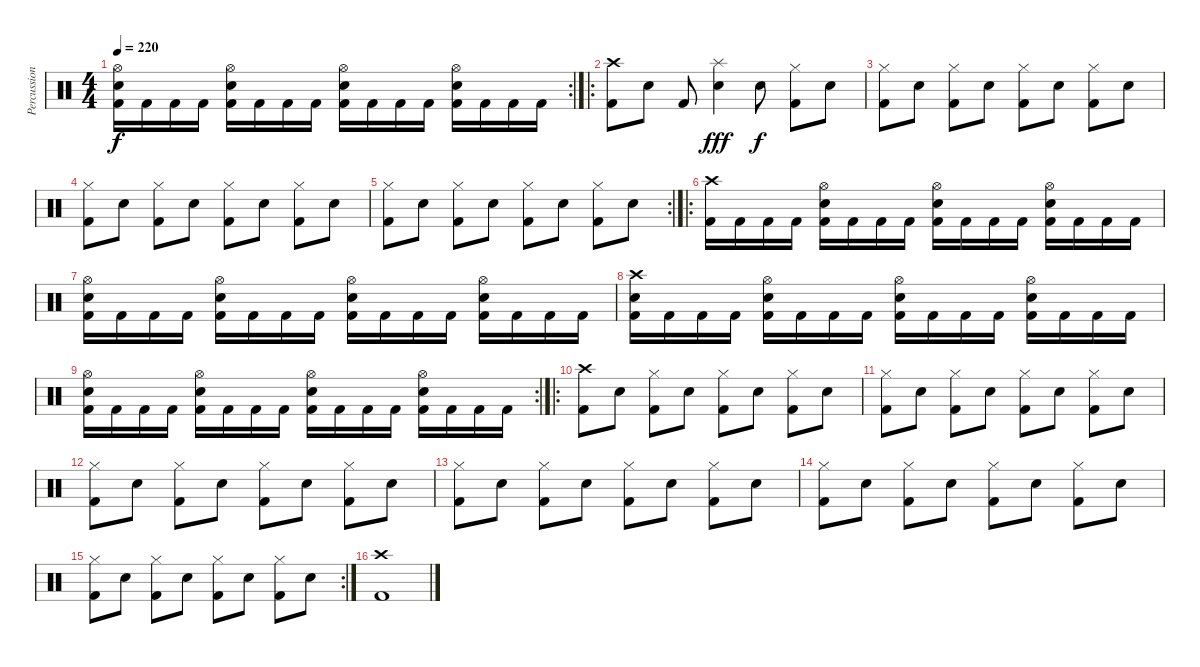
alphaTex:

\track ("Percussion" "Percussion") {instrument percussion}
\staff {score}
\articulation defaults
\rc 2
\ts (4 4)
\tempo 220
\clef neutral
\ks c
("Hi-Hat (open)" "Electric Snare (hit)" "Kick (hit) 2").16{dy f} "Kick (hit) 2".16 "Kick (hit) 2".16 "Kick (hit) 2".16 ("Hi-Hat (open)" "Electric Snare (hit)" "Kick (hit) 2").16 "Kick (hit) 2".16 "Kick (hit) 2".16 "Kick (hit) 2".16 ("Hi-Hat (open)" "Electric Snare (hit)" "Kick (hit) 2").16 "Kick (hit) 2".16 "Kick (hit) 2".16 "Kick (hit) 2".16 ("Hi-Hat (open)" "Electric Snare (hit)" "Kick (hit) 2").16 "Kick (hit) 2".16 "Kick (hit) 2".16 "Kick (hit) 2".16 |
\ro
("Crash high (hit)" "Kick (hit) 2").8 "Electric Snare (hit)".8 "Kick (hit) 2".8 ("Splash (hit)" "Electric Snare (hit)").4{dy fff} "Electric Snare (hit)".8{dy f} ("Hi-Hat (closed)" "Kick (hit) 2").8 "Electric Snare (hit)".8 |
("Hi-Hat (closed)" "Kick (hit) 2").8 "Electric Snare (hit)".8 ("Hi-Hat (closed)" "Kick (hit) 2").8 "Electric Snare (hit)".8 ("Hi-Hat (closed)" "Kick (hit) 2").8 "Electric Snare (hit)".8 ("Hi-Hat (closed)" "Kick (hit) 2").8 "Electric Snare (hit)".8 |
("Hi-Hat (closed)" "Kick (hit) 2").8 "Electric Snare (hit)".8 ("Hi-Hat (closed)" "Kick (hit) 2").8 "Electric Snare (hit)".8 ("Hi-Hat (closed)" "Kick (hit) 2").8 "Electric Snare (hit)".8 ("Hi-Hat (closed)" "Kick (hit) 2").8 "Electric Snare (hit)".8 |
\rc 2
("Hi-Hat (closed)" "Kick (hit) 2").8 "Electric Snare (hit)".8 ("Hi-Hat (closed)" "Kick (hit) 2").8 "Electric Snare (hit)".8 ("Hi-Hat (closed)" "Kick (hit) 2").8 "Electric Snare (hit)".8 ("Hi-Hat (closed)" "Kick (hit) 2").8 "Electric Snare (hit)".8 |
\ro
("Crash high (hit)" "Kick (hit) 2").16 "Kick (hit) 2".16 "Kick (hit) 2".16 "Kick (hit) 2".16 ("Hi-Hat (open)" "Electric Snare (hit)" "Kick (hit) 2").16 "Kick (hit) 2".16 "Kick (hit) 2".16 "Kick (hit) 2".16 ("Hi-Hat (open)" "Electric Snare (hit)" "Kick (hit) 2").16 "Kick (hit) 2".16 "Kick (hit) 2".16 "Kick (hit) 2".16 ("Hi-Hat (open)" "Electric Snare (hit)" "Kick (hit) 2").16 "Kick (hit) 2".16 "Kick (hit) 2".16 "Kick (hit) 2".16 |
("Hi-Hat (open)" "Electric Snare (hit)" "Kick (hit) 2").16 "Kick (hit) 2".16 "Kick (hit) 2".16 "Kick (hit) 2".16 ("Hi-Hat (open)" "Electric Snare (hit)" "Kick (hit) 2").16 "Kick (hit) 2".16 "Kick (hit) 2".16 "Kick (hit) 2".16 ("Hi-Hat (open)" "Electric Snare (hit)" "Kick (hit) 2").16 "Kick (hit) 2".16 "Kick (hit) 2".16 "Kick (hit) 2".16 ("Hi-Hat (open)" "Electric Snare (hit)" "Kick (hit) 2").16 "Kick (hit) 2".16 "Kick (hit) 2".16 "Kick (hit) 2".16 |
("Crash high (hit)" "Electric Snare (hit)" "Kick (hit) 2").16 "Kick (hit) 2".16 "Kick (hit) 2".16 "Kick (hit) 2".16 ("Hi-Hat (open)" "Electric Snare (hit)" "Kick (hit) 2").16 "Kick (hit) 2".16 "Kick (hit) 2".16 "Kick (hit) 2".16 ("Hi-Hat (open)" "Electric Snare (hit)" "Kick (hit) 2").16 "Kick (hit) 2".16 "Kick (hit) 2".16 "Kick (hit) 2".16 ("Hi-Hat (open)" "Electric Snare (hit)" "Kick (hit) 2").16 "Kick (hit) 2".16 "Kick (hit) 2".16 "Kick (hit) 2".16 |
\rc 2
("Hi-Hat (open)" "Electric Snare (hit)" "Kick (hit) 2").16 "Kick (hit) 2".16 "Kick (hit) 2".16 "Kick (hit) 2".16 ("Hi-Hat (open)" "Electric Snare (hit)" "Kick (hit) 2").16 "Kick (hit) 2".16 "Kick (hit) 2".16 "Kick (hit) 2".16 ("Hi-Hat (open)" "Electric Snare (hit)" "Kick (hit) 2").16 "Kick (hit) 2".16 "Kick (hit) 2".16 "Kick (hit) 2".16 ("Hi-Hat (open)" "Electric Snare (hit)" "Kick (hit) 2").16 "Kick (hit) 2".16 "Kick (hit) 2".16 "Kick (hit) 2".16 |
\ro
("Crash high (hit)" "Kick (hit) 2").8 "Electric Snare (hit)".8 ("Hi-Hat (closed)" "Kick (hit) 2").8 "Electric Snare (hit)".8 ("Hi-Hat (closed)" "Kick (hit) 2").8 "Electric Snare (hit)".8 ("Hi-Hat (closed)" "Kick (hit) 2").8 "Electric Snare (hit)".8 |
("Hi-Hat (closed)" "Kick (hit) 2").8 "Electric Snare (hit)".8 ("Hi-Hat (closed)" "Kick (hit) 2").8 "Electric Snare (hit)".8 ("Hi-Hat (closed)" "Kick (hit) 2").8 "Electric Snare (hit)".8 ("Hi-Hat (closed)" "Kick (hit) 2").8 "Electric Snare (hit)".8 |
("Hi-Hat (closed)" "Kick (hit) 2").8 "Electric Snare (hit)".8 ("Hi-Hat (closed)" "Kick (hit) 2").8 "Electric Snare (hit)".8 ("Hi-Hat (closed)" "Kick (hit) 2").8 "Electric Snare (hit)".8 ("Hi-Hat (closed)" "Kick (hit) 2").8 "Electric Snare (hit)".8 |
("Hi-Hat (closed)" "Kick (hit) 2").8 "Electric Snare (hit)".8 ("Hi-Hat (closed)" "Kick (hit) 2").8 "Electric Snare (hit)".8 ("Hi-Hat (closed)" "Kick (hit) 2").8 "Electric Snare (hit)".8 ("Hi-Hat (closed)" "Kick (hit) 2").8 "Electric Snare (hit)".8 |
("Hi-Hat (closed)" "Kick (hit) 2").8 "Electric Snare (hit)".8 ("Hi-Hat (closed)" "Kick (hit) 2").8 "Electric Snare (hit)".8 ("Hi-Hat (closed)" "Kick (hit) 2").8 "Electric Snare (hit)".8 ("Hi-Hat (closed)" "Kick (hit) 2").8 "Electric Snare (hit)".8 |
\rc 2
("Hi-Hat (closed)" "Kick (hit) 2").8 "Electric Snare (hit)".8 ("Hi-Hat (closed)" "Kick (hit) 2").8 "Electric Snare (hit)".8 ("Hi-Hat (closed)" "Kick (hit) 2").8 "Electric Snare (hit)".8 ("Hi-Hat (closed)" "Kick (hit) 2").8 "Electric Snare (hit)".8 |
("Crash high (hit)" "Kick (hit) 2").1
